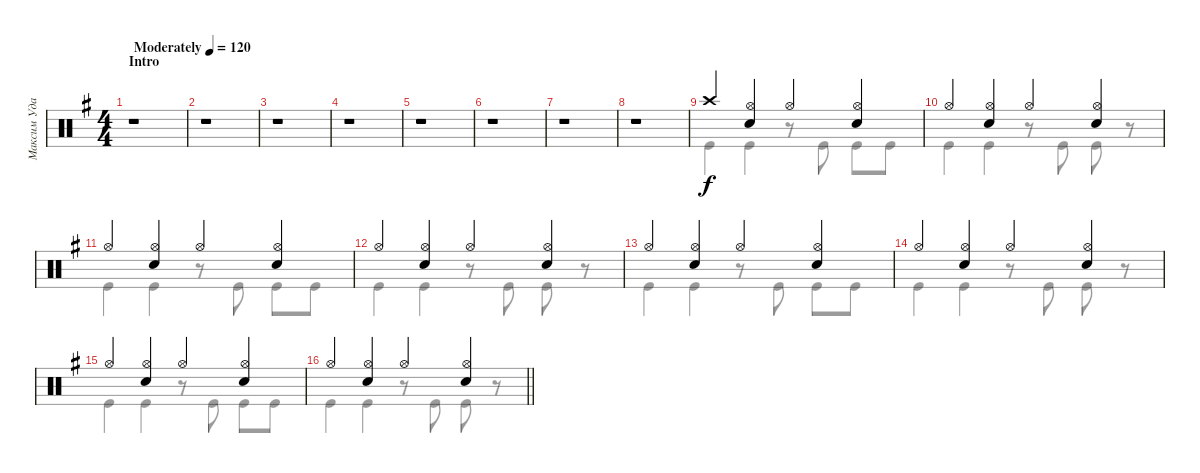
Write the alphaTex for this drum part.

\track ("Максим Удалов" "Максим Уда") {instrument percussion}
\staff {score}
\articulation defaults
\voice
\ts (4 4)
\section ("" "Intro")
\tempo (120 "Moderately")
\clef neutral
\ks g
r.1{dy f} |
r.1 |
r.1 |
r.1 |
r.1 |
r.1 |
r.1 |
r.1 |
"Crash high (hit)".4 ("Snare (hit) 2" "Hi-Hat (open)").4 "Hi-Hat (open)".4 ("Snare (hit) 2" "Hi-Hat (open)").4 |
"Hi-Hat (open)".4 ("Snare (hit) 2" "Hi-Hat (open)").4 "Hi-Hat (open)".4 ("Snare (hit) 2" "Hi-Hat (open)").4 |
"Hi-Hat (open)".4 ("Snare (hit) 2" "Hi-Hat (open)").4 "Hi-Hat (open)".4 ("Snare (hit) 2" "Hi-Hat (open)").4 |
"Hi-Hat (open)".4 ("Snare (hit) 2" "Hi-Hat (open)").4 "Hi-Hat (open)".4 ("Snare (hit) 2" "Hi-Hat (open)").4 |
"Hi-Hat (open)".4 ("Snare (hit) 2" "Hi-Hat (open)").4 "Hi-Hat (open)".4 ("Snare (hit) 2" "Hi-Hat (open)").4 |
"Hi-Hat (open)".4 ("Snare (hit) 2" "Hi-Hat (open)").4 "Hi-Hat (open)".4 ("Snare (hit) 2" "Hi-Hat (open)").4 |
"Hi-Hat (open)".4 ("Snare (hit) 2" "Hi-Hat (open)").4 "Hi-Hat (open)".4 ("Snare (hit) 2" "Hi-Hat (open)").4 |
\barLineRight lightlight "Hi-Hat (open)".4
("Snare (hit) 2" "Hi-Hat (open)").4 "Hi-Hat (open)".4 ("Snare (hit) 2" "Hi-Hat (open)").4
\voice
\clef neutral
\ottava regular
\simile none
\ks g
|
|
|
|
|
|
|
|
"Kick (hit)".4 "Kick (hit)".4 r.8 "Kick (hit)".8 "Kick (hit)".8 "Kick (hit)".8 |
"Kick (hit)".4 "Kick (hit)".4 r.8 "Kick (hit)".8 "Kick (hit)".8 r.8 |
"Kick (hit)".4 "Kick (hit)".4 r.8 "Kick (hit)".8 "Kick (hit)".8 "Kick (hit)".8 |
"Kick (hit)".4 "Kick (hit)".4 r.8 "Kick (hit)".8 "Kick (hit)".8 r.8 |
"Kick (hit)".4 "Kick (hit)".4 r.8 "Kick (hit)".8 "Kick (hit)".8 "Kick (hit)".8 |
"Kick (hit)".4 "Kick (hit)".4 r.8 "Kick (hit)".8 "Kick (hit)".8 r.8 |
"Kick (hit)".4 "Kick (hit)".4 r.8 "Kick (hit)".8 "Kick (hit)".8 "Kick (hit)".8 |
\barLineRight lightlight "Kick (hit)".4 "Kick (hit)".4
r.8 "Kick (hit)".8 "Kick (hit)".8 r.8
